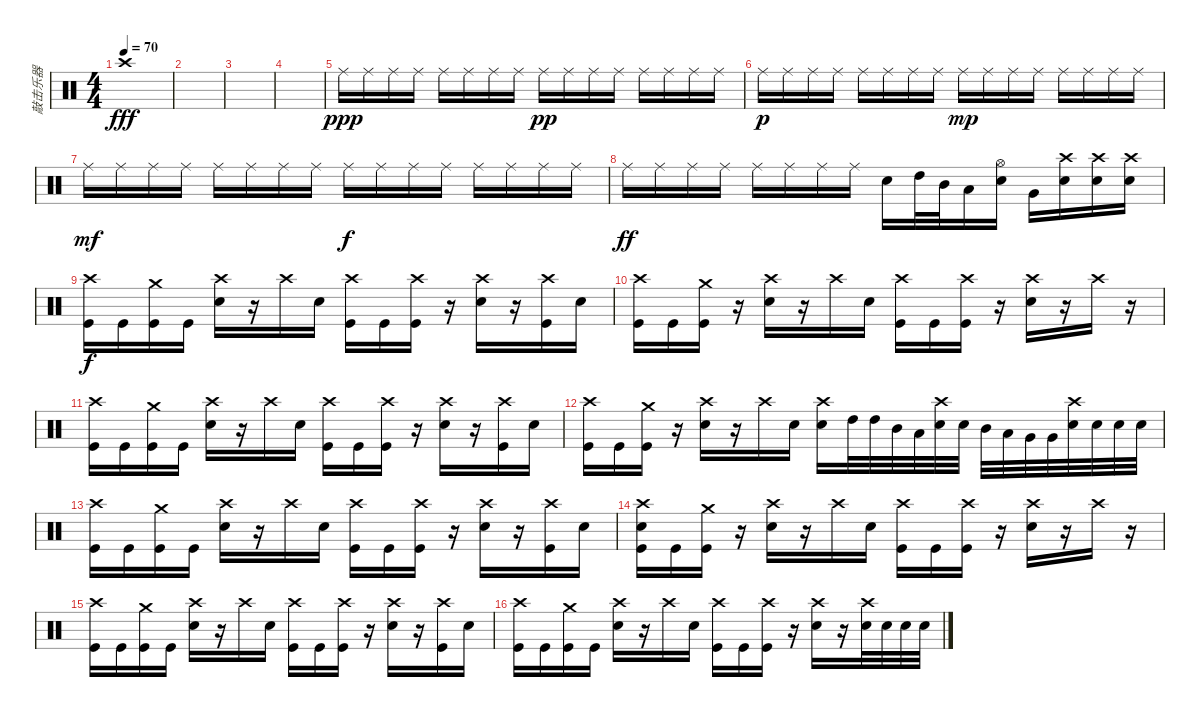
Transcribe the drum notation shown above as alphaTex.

\track ("敲击乐器" "敲击乐器") {instrument percussion}
\staff {score}
\articulation defaults
\ts (4 4)
\tempo 70
\clef neutral
\ks c "Crash high (hit)".1{dy fff}
|
|
|
|
"Ride (middle)".16{dy ppp} "Ride (middle)".16 "Ride (middle)".16 "Ride (middle)".16 "Ride (middle)".16 "Ride (middle)".16 "Ride (middle)".16 "Ride (middle)".16 "Ride (middle)".16{dy pp} "Ride (middle)".16 "Ride (middle)".16 "Ride (middle)".16 "Ride (middle)".16 "Ride (middle)".16 "Ride (middle)".16 "Ride (middle)".16 |
"Ride (middle)".16{dy p} "Ride (middle)".16 "Ride (middle)".16 "Ride (middle)".16 "Ride (middle)".16 "Ride (middle)".16 "Ride (middle)".16 "Ride (middle)".16 "Ride (middle)".16{dy mp} "Ride (middle)".16 "Ride (middle)".16 "Ride (middle)".16 "Ride (middle)".16 "Ride (middle)".16 "Ride (middle)".16 "Ride (middle)".16 |
"Ride (middle)".16{dy mf} "Ride (middle)".16 "Ride (middle)".16 "Ride (middle)".16 "Ride (middle)".16 "Ride (middle)".16 "Ride (middle)".16 "Ride (middle)".16 "Ride (middle)".16{dy f} "Ride (middle)".16 "Ride (middle)".16 "Ride (middle)".16 "Ride (middle)".16 "Ride (middle)".16 "Ride (middle)".16 "Ride (middle)".16 |
"Ride (middle)".16{dy ff} "Ride (middle)".16 "Ride (middle)".16 "Ride (middle)".16 "Ride (middle)".16 "Ride (middle)".16 "Ride (middle)".16 "Ride (middle)".16 "Snare (hit) 2".16 "High Tom (hit)".32 "Mid Tom (hit)".32 "Low Tom (hit)".16 ("Hi-Hat (open)" "Snare (hit) 2").16 "Very Low Tom (hit)".16 ("Crash high (hit)" "Snare (hit) 2").16 ("Crash high (hit)" "Snare (hit) 2").16 ("Crash high (hit)" "Snare (hit) 2").16 |
("Crash high (hit)" "Kick (hit)").16{dy f} "Kick (hit)".16 ("Crash medium (hit)" "Kick (hit)").16 "Kick (hit)".16 ("Snare (hit) 2" "Crash high (hit)").16 r.16 "Crash high (hit)".16 "Snare (hit) 2".16 ("Crash high (hit)" "Kick (hit)").16 "Kick (hit)".16 ("Crash high (hit)" "Kick (hit)").16 r.16 ("Snare (hit) 2" "Crash high (hit)").16 r.16 ("Crash high (hit)" "Kick (hit)").16 "Snare (hit) 2".16 |
("Crash high (hit)" "Kick (hit)").16 "Kick (hit)".16 ("Crash medium (hit)" "Kick (hit)").16 r.16 ("Crash high (hit)" "Snare (hit) 2").16 r.16 "Crash high (hit)".16 "Snare (hit) 2".16 ("Crash high (hit)" "Kick (hit)").16 "Kick (hit)".16 ("Crash high (hit)" "Kick (hit)").16 r.16 ("Snare (hit) 2" "Crash high (hit)").16 r.16 "Crash high (hit)".16 r.16 |
("Crash high (hit)" "Kick (hit)").16 "Kick (hit)".16 ("Crash medium (hit)" "Kick (hit)").16 "Kick (hit)".16 ("Snare (hit) 2" "Crash high (hit)").16 r.16 "Crash high (hit)".16 "Snare (hit) 2".16 ("Crash high (hit)" "Kick (hit)").16 "Kick (hit)".16 ("Crash high (hit)" "Kick (hit)").16 r.16 ("Snare (hit) 2" "Crash high (hit)").16 r.16 ("Crash high (hit)" "Kick (hit)").16 "Snare (hit) 2".16 |
("Crash high (hit)" "Kick (hit)").16 "Kick (hit)".16 ("Crash medium (hit)" "Kick (hit)").16 r.16 ("Crash high (hit)" "Snare (hit) 2").16 r.16 "Crash high (hit)".16 "Snare (hit) 2".16 ("Crash high (hit)" "Snare (hit) 2").16 "High Tom (hit)".32 "High Tom (hit)".32 "Mid Tom (hit)".32 "Low Tom (hit)".32 ("Crash high (hit)" "Snare (hit) 2").32 "Snare (hit) 2".32 "Mid Tom (hit)".32 "Low Tom (hit)".32 "Very Low Tom (hit)".32 "Very Low Tom (hit)".32 ("Crash high (hit)" "Snare (hit) 2").32 "Snare (hit) 2".32 "Snare (hit) 2".32 "Snare (hit) 2".32 |
("Crash high (hit)" "Kick (hit)").16 "Kick (hit)".16 ("Crash medium (hit)" "Kick (hit)").16 "Kick (hit)".16 ("Snare (hit) 2" "Crash high (hit)").16 r.16 "Crash high (hit)".16 "Snare (hit) 2".16 ("Crash high (hit)" "Kick (hit)").16 "Kick (hit)".16 ("Crash high (hit)" "Kick (hit)").16 r.16 ("Snare (hit) 2" "Crash high (hit)").16 r.16 ("Crash high (hit)" "Kick (hit)").16 "Snare (hit) 2".16 |
("Snare (hit) 2" "Crash high (hit)" "Kick (hit)").16 "Kick (hit)".16 ("Crash medium (hit)" "Kick (hit)").16 r.16 ("Crash high (hit)" "Snare (hit) 2").16 r.16 "Crash high (hit)".16 "Snare (hit) 2".16 ("Crash high (hit)" "Kick (hit)").16 "Kick (hit)".16 ("Crash high (hit)" "Kick (hit)").16 r.16 ("Snare (hit) 2" "Crash high (hit)").16 r.16 "Crash high (hit)".16 r.16 |
("Crash high (hit)" "Kick (hit)").16 "Kick (hit)".16 ("Crash medium (hit)" "Kick (hit)").16 "Kick (hit)".16 ("Snare (hit) 2" "Crash high (hit)").16 r.16 "Crash high (hit)".16 "Snare (hit) 2".16 ("Crash high (hit)" "Kick (hit)").16 "Kick (hit)".16 ("Crash high (hit)" "Kick (hit)").16 r.16 ("Snare (hit) 2" "Crash high (hit)").16 r.16 ("Crash high (hit)" "Kick (hit)").16 "Snare (hit) 2".16 |
("Crash high (hit)" "Kick (hit)").16 "Kick (hit)".16 ("Crash medium (hit)" "Kick (hit)").16 "Kick (hit)".16 ("Snare (hit) 2" "Crash high (hit)").16 r.16 "Crash high (hit)".16 "Snare (hit) 2".16 ("Crash high (hit)" "Kick (hit)").16 "Kick (hit)".16 ("Crash high (hit)" "Kick (hit)").16 r.16 ("Snare (hit) 2" "Crash high (hit)").16 r.16 ("Snare (hit) 2" "Crash high (hit)").32 "Snare (hit) 2".32 "Snare (hit) 2".32 "Snare (hit) 2".32
